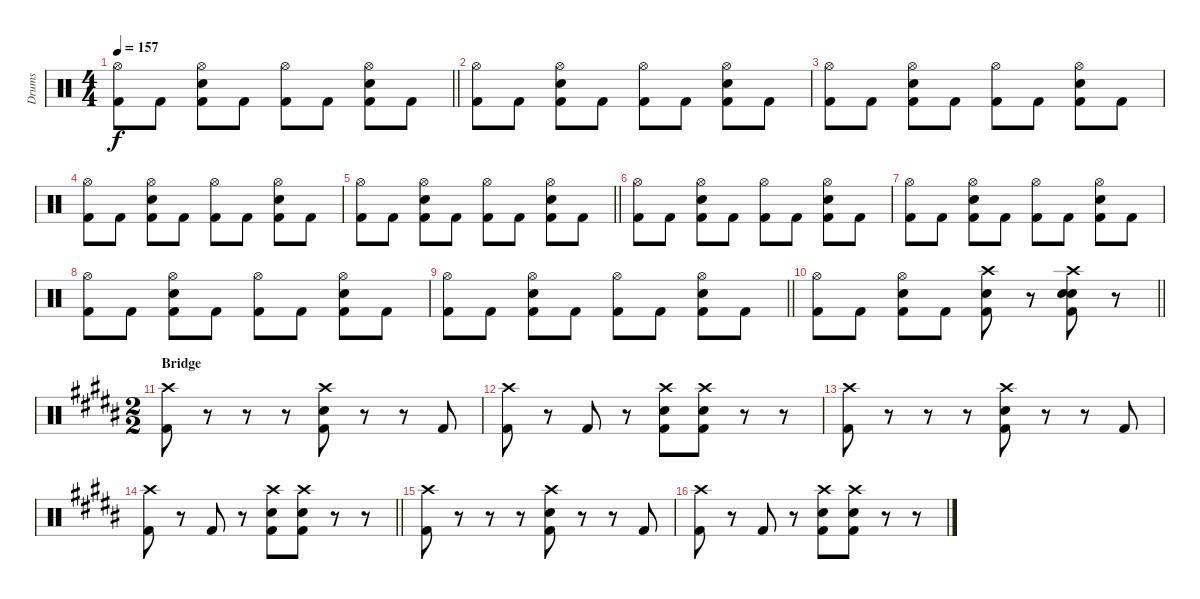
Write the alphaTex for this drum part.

\track ("Drums" "Drums") {instrument percussion}
\staff {score}
\articulation defaults
\ts (4 4)
\tempo 157
\clef neutral
\barLineRight lightlight
\ks c
("Hi-Hat (open)" "Kick (hit) 2").8{dy f} "Kick (hit) 2".8 ("Hi-Hat (open)" "Electric Snare (hit)" "Kick (hit) 2").8 "Kick (hit) 2".8 ("Hi-Hat (open)" "Kick (hit) 2").8 "Kick (hit) 2".8 ("Hi-Hat (open)" "Kick (hit) 2" "Electric Snare (hit)").8 "Kick (hit) 2".8 |
("Hi-Hat (open)" "Kick (hit) 2").8 "Kick (hit) 2".8 ("Hi-Hat (open)" "Electric Snare (hit)" "Kick (hit) 2").8 "Kick (hit) 2".8 ("Hi-Hat (open)" "Kick (hit) 2").8 "Kick (hit) 2".8 ("Hi-Hat (open)" "Kick (hit) 2" "Electric Snare (hit)").8 "Kick (hit) 2".8 |
("Hi-Hat (open)" "Kick (hit) 2").8 "Kick (hit) 2".8 ("Hi-Hat (open)" "Electric Snare (hit)" "Kick (hit) 2").8 "Kick (hit) 2".8 ("Hi-Hat (open)" "Kick (hit) 2").8 "Kick (hit) 2".8 ("Hi-Hat (open)" "Kick (hit) 2" "Electric Snare (hit)").8 "Kick (hit) 2".8 |
("Hi-Hat (open)" "Kick (hit) 2").8 "Kick (hit) 2".8 ("Hi-Hat (open)" "Electric Snare (hit)" "Kick (hit) 2").8 "Kick (hit) 2".8 ("Hi-Hat (open)" "Kick (hit) 2").8 "Kick (hit) 2".8 ("Hi-Hat (open)" "Kick (hit) 2" "Electric Snare (hit)").8 "Kick (hit) 2".8 |
\barLineRight lightlight
("Hi-Hat (open)" "Kick (hit) 2").8 "Kick (hit) 2".8 ("Hi-Hat (open)" "Electric Snare (hit)" "Kick (hit) 2").8 "Kick (hit) 2".8 ("Hi-Hat (open)" "Kick (hit) 2").8 "Kick (hit) 2".8 ("Hi-Hat (open)" "Kick (hit) 2" "Electric Snare (hit)").8 "Kick (hit) 2".8 |
("Hi-Hat (open)" "Kick (hit) 2").8 "Kick (hit) 2".8 ("Hi-Hat (open)" "Electric Snare (hit)" "Kick (hit) 2").8 "Kick (hit) 2".8 ("Hi-Hat (open)" "Kick (hit) 2").8 "Kick (hit) 2".8 ("Hi-Hat (open)" "Kick (hit) 2" "Electric Snare (hit)").8 "Kick (hit) 2".8 |
("Hi-Hat (open)" "Kick (hit) 2").8 "Kick (hit) 2".8 ("Hi-Hat (open)" "Electric Snare (hit)" "Kick (hit) 2").8 "Kick (hit) 2".8 ("Hi-Hat (open)" "Kick (hit) 2").8 "Kick (hit) 2".8 ("Hi-Hat (open)" "Kick (hit) 2" "Electric Snare (hit)").8 "Kick (hit) 2".8 |
("Hi-Hat (open)" "Kick (hit) 2").8 "Kick (hit) 2".8 ("Hi-Hat (open)" "Electric Snare (hit)" "Kick (hit) 2").8 "Kick (hit) 2".8 ("Hi-Hat (open)" "Kick (hit) 2").8 "Kick (hit) 2".8 ("Hi-Hat (open)" "Kick (hit) 2" "Electric Snare (hit)").8 "Kick (hit) 2".8 |
\barLineRight lightlight
("Hi-Hat (open)" "Kick (hit) 2").8 "Kick (hit) 2".8 ("Hi-Hat (open)" "Electric Snare (hit)" "Kick (hit) 2").8 "Kick (hit) 2".8 ("Hi-Hat (open)" "Kick (hit) 2").8 "Kick (hit) 2".8 ("Hi-Hat (open)" "Kick (hit) 2" "Electric Snare (hit)").8 "Kick (hit) 2".8 |
\barLineRight lightlight
("Hi-Hat (open)" "Kick (hit) 2").8 "Kick (hit) 2".8 ("Hi-Hat (open)" "Electric Snare (hit)" "Kick (hit) 2").8 "Kick (hit) 2".8 ("Crash high (hit)" "Electric Snare (hit)" "Kick (hit) 2").8 r.8 ("Crash high (hit)" "Electric Snare (hit)" "Kick (hit) 2" "Electric Snare (hit)").8 r.8 |
\ts (2 2)
\section ("" "Bridge")
\ks b
("Crash high (hit)" "Kick (hit) 2").8 r.8 r.8 r.8 ("Crash high (hit)" "Electric Snare (hit)" "Kick (hit) 2").8 r.8 r.8 "Kick (hit) 2".8 |
\ks g#minor
("Crash high (hit)" "Kick (hit) 2").8 r.8 "Kick (hit) 2".8 r.8 ("Crash high (hit)" "Electric Snare (hit)" "Kick (hit) 2").8 ("Crash high (hit)" "Electric Snare (hit)" "Kick (hit) 2").8 r.8 r.8 |
\ks b
("Crash high (hit)" "Kick (hit) 2").8 r.8 r.8 r.8 ("Crash high (hit)" "Electric Snare (hit)" "Kick (hit) 2").8 r.8 r.8 "Kick (hit) 2".8 |
\barLineRight lightlight
\ks g#minor
("Crash high (hit)" "Kick (hit) 2").8 r.8 "Kick (hit) 2".8 r.8 ("Crash high (hit)" "Electric Snare (hit)" "Kick (hit) 2").8 ("Crash high (hit)" "Electric Snare (hit)" "Kick (hit) 2").8 r.8 r.8 |
\ks b
("Crash high (hit)" "Kick (hit) 2").8 r.8 r.8 r.8 ("Crash high (hit)" "Electric Snare (hit)" "Kick (hit) 2").8 r.8 r.8 "Kick (hit) 2".8 |
\ks g#minor
("Crash high (hit)" "Kick (hit) 2").8 r.8 "Kick (hit) 2".8 r.8 ("Crash high (hit)" "Electric Snare (hit)" "Kick (hit) 2").8 ("Crash high (hit)" "Electric Snare (hit)" "Kick (hit) 2").8 r.8 r.8
